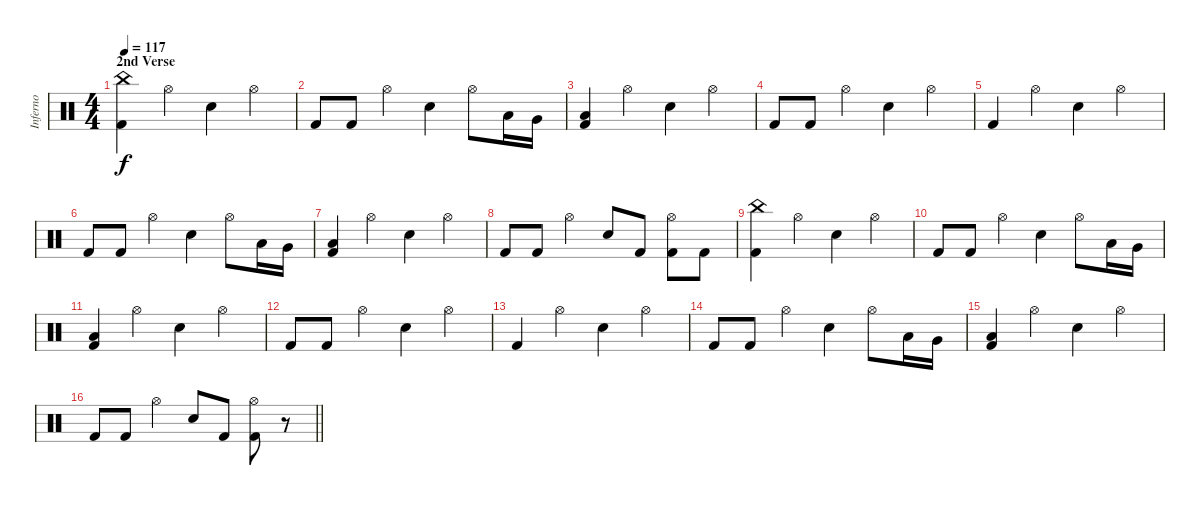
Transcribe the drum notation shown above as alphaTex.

\track ("Inferno" "Inferno") {instrument percussion}
\staff {score}
\articulation defaults
\ts (4 4)
\section ("" "2nd Verse")
\tempo 117
\clef neutral
\ks c
("China (hit)" "Kick (hit) 2").4{dy f} "Hi-Hat (open)".4 "Snare (hit) 2".4 "Hi-Hat (open)".4 |
"Kick (hit) 2".8 "Kick (hit) 2".8 "Hi-Hat (open)".4 "Snare (hit) 2".4 "Hi-Hat (open)".8 "Low Tom (hit)".16 "Very Low Tom (hit)".16 |
("Low Floor Tom (hit)" "Kick (hit) 2").4 "Hi-Hat (open)".4 "Snare (hit) 2".4 "Hi-Hat (open)".4 |
"Kick (hit) 2".8 "Kick (hit) 2".8 "Hi-Hat (open)".4 "Snare (hit) 2".4 "Hi-Hat (open)".4 |
"Kick (hit) 2".4 "Hi-Hat (open)".4 "Snare (hit) 2".4 "Hi-Hat (open)".4 |
"Kick (hit) 2".8 "Kick (hit) 2".8 "Hi-Hat (open)".4 "Snare (hit) 2".4 "Hi-Hat (open)".8 "Low Tom (hit)".16 "Very Low Tom (hit)".16 |
("Low Floor Tom (hit)" "Kick (hit) 2").4 "Hi-Hat (open)".4 "Snare (hit) 2".4 "Hi-Hat (open)".4 |
"Kick (hit) 2".8 "Kick (hit) 2".8 "Hi-Hat (open)".4 "Snare (hit) 2".8 "Kick (hit) 2".8 ("Hi-Hat (open)" "Kick (hit) 2").8 "Kick (hit) 2".8 |
("China (hit)" "Kick (hit) 2").4 "Hi-Hat (open)".4 "Snare (hit) 2".4 "Hi-Hat (open)".4 |
"Kick (hit) 2".8 "Kick (hit) 2".8 "Hi-Hat (open)".4 "Snare (hit) 2".4 "Hi-Hat (open)".8 "Low Tom (hit)".16 "Very Low Tom (hit)".16 |
("Low Floor Tom (hit)" "Kick (hit) 2").4 "Hi-Hat (open)".4 "Snare (hit) 2".4 "Hi-Hat (open)".4 |
"Kick (hit) 2".8 "Kick (hit) 2".8 "Hi-Hat (open)".4 "Snare (hit) 2".4 "Hi-Hat (open)".4 |
"Kick (hit) 2".4 "Hi-Hat (open)".4 "Snare (hit) 2".4 "Hi-Hat (open)".4 |
"Kick (hit) 2".8 "Kick (hit) 2".8 "Hi-Hat (open)".4 "Snare (hit) 2".4 "Hi-Hat (open)".8 "Low Tom (hit)".16 "Very Low Tom (hit)".16 |
("Low Floor Tom (hit)" "Kick (hit) 2").4 "Hi-Hat (open)".4 "Snare (hit) 2".4 "Hi-Hat (open)".4 |
\barLineRight lightlight "Kick (hit) 2".8 "Kick (hit) 2".8 "Hi-Hat (open)".4 "Snare (hit) 2".8 "Kick (hit) 2".8
("Hi-Hat (open)" "Kick (hit) 2").8 r.8
